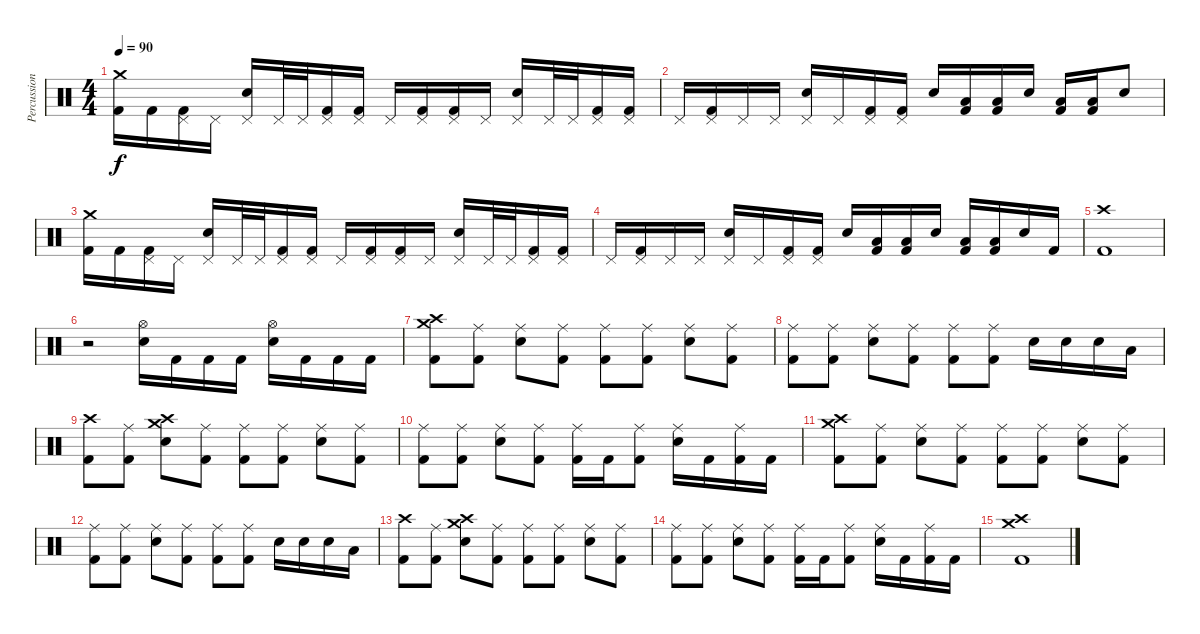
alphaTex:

\track ("Percussion" "Percussion") {instrument percussion}
\staff {score}
\articulation defaults
\ts (4 4)
\tempo 90
\clef neutral
\ks c
("Crash medium (hit)" "Kick (hit) 2").16{dy f} "Kick (hit) 2".16 ("Pedal Hi-Hat (hit)" "Kick (hit) 2").16 "Pedal Hi-Hat (hit)".16 ("Pedal Hi-Hat (hit)" "Electric Snare (hit)").16 "Pedal Hi-Hat (hit)".32 "Pedal Hi-Hat (hit)".32 ("Pedal Hi-Hat (hit)" "Kick (hit) 2").16 ("Pedal Hi-Hat (hit)" "Kick (hit) 2").16 "Pedal Hi-Hat (hit)".16 ("Pedal Hi-Hat (hit)" "Kick (hit) 2").16 ("Pedal Hi-Hat (hit)" "Kick (hit) 2").16 "Pedal Hi-Hat (hit)".16 ("Pedal Hi-Hat (hit)" "Electric Snare (hit)").16 "Pedal Hi-Hat (hit)".32 "Pedal Hi-Hat (hit)".32 ("Pedal Hi-Hat (hit)" "Kick (hit) 2").16 ("Pedal Hi-Hat (hit)" "Kick (hit) 2").16 |
"Pedal Hi-Hat (hit)".16 ("Pedal Hi-Hat (hit)" "Kick (hit) 2").16 "Pedal Hi-Hat (hit)".16 "Pedal Hi-Hat (hit)".16 ("Pedal Hi-Hat (hit)" "Electric Snare (hit)").16 "Pedal Hi-Hat (hit)".16 ("Pedal Hi-Hat (hit)" "Kick (hit) 2").16 ("Pedal Hi-Hat (hit)" "Kick (hit) 2").16 "Electric Snare (hit)".16 ("Low Tom (hit)" "Kick (hit) 2").16 ("Low Tom (hit)" "Kick (hit) 2").16 "Electric Snare (hit)".16 ("Low Tom (hit)" "Kick (hit) 2").16 ("Low Tom (hit)" "Kick (hit) 2").16 "Electric Snare (hit)".8 |
("Crash medium (hit)" "Kick (hit) 2").16 "Kick (hit) 2".16 ("Pedal Hi-Hat (hit)" "Kick (hit) 2").16 "Pedal Hi-Hat (hit)".16 ("Pedal Hi-Hat (hit)" "Electric Snare (hit)").16 "Pedal Hi-Hat (hit)".32 "Pedal Hi-Hat (hit)".32 ("Pedal Hi-Hat (hit)" "Kick (hit) 2").16 ("Pedal Hi-Hat (hit)" "Kick (hit) 2").16 "Pedal Hi-Hat (hit)".16 ("Pedal Hi-Hat (hit)" "Kick (hit) 2").16 ("Pedal Hi-Hat (hit)" "Kick (hit) 2").16 "Pedal Hi-Hat (hit)".16 ("Pedal Hi-Hat (hit)" "Electric Snare (hit)").16 "Pedal Hi-Hat (hit)".32 "Pedal Hi-Hat (hit)".32 ("Pedal Hi-Hat (hit)" "Kick (hit) 2").16 ("Pedal Hi-Hat (hit)" "Kick (hit) 2").16 |
"Pedal Hi-Hat (hit)".16 ("Pedal Hi-Hat (hit)" "Kick (hit) 2").16 "Pedal Hi-Hat (hit)".16 "Pedal Hi-Hat (hit)".16 ("Pedal Hi-Hat (hit)" "Electric Snare (hit)").16 "Pedal Hi-Hat (hit)".16 ("Pedal Hi-Hat (hit)" "Kick (hit) 2").16 ("Pedal Hi-Hat (hit)" "Kick (hit) 2").16 "Electric Snare (hit)".16 ("Low Tom (hit)" "Kick (hit) 2").16 ("Low Tom (hit)" "Kick (hit) 2").16 "Electric Snare (hit)".16 ("Low Tom (hit)" "Kick (hit) 2").16 ("Low Tom (hit)" "Kick (hit) 2").16 "Electric Snare (hit)".16 "Kick (hit) 2".16 |
("Crash high (hit)" "Kick (hit) 2").1 |
r.2 ("Hi-Hat (open)" "Electric Snare (hit)").16 "Kick (hit) 2".16 "Kick (hit) 2".16 "Kick (hit) 2".16 ("Hi-Hat (open)" "Electric Snare (hit)").16 "Kick (hit) 2".16 "Kick (hit) 2".16 "Kick (hit) 2".16 |
("Crash medium (hit)" "Crash high (hit)" "Kick (hit) 2").8 ("Ride (middle)" "Kick (hit) 2").8 ("Ride (middle)" "Electric Snare (hit)").8 ("Ride (middle)" "Kick (hit) 2").8 ("Ride (middle)" "Kick (hit) 2").8 ("Ride (middle)" "Kick (hit) 2").8 ("Ride (middle)" "Electric Snare (hit)").8 ("Ride (middle)" "Kick (hit) 2").8 |
("Ride (middle)" "Kick (hit) 2").8 ("Ride (middle)" "Kick (hit) 2").8 ("Ride (middle)" "Electric Snare (hit)").8 ("Ride (middle)" "Kick (hit) 2").8 ("Ride (middle)" "Kick (hit) 2").8 ("Ride (middle)" "Kick (hit) 2").8 "Electric Snare (hit)".16 "Electric Snare (hit)".16 "Electric Snare (hit)".16 "Low Tom (hit)".16 |
("Crash high (hit)" "Kick (hit) 2").8 ("Ride (middle)" "Kick (hit) 2").8 ("Crash medium (hit)" "Crash high (hit)" "Electric Snare (hit)").8 ("Ride (middle)" "Kick (hit) 2").8 ("Ride (middle)" "Kick (hit) 2").8 ("Ride (middle)" "Kick (hit) 2").8 ("Ride (middle)" "Electric Snare (hit)").8 ("Ride (middle)" "Kick (hit) 2").8 |
("Ride (middle)" "Kick (hit) 2").8 ("Ride (middle)" "Kick (hit) 2").8 ("Ride (middle)" "Electric Snare (hit)").8 ("Ride (middle)" "Kick (hit) 2").8 ("Ride (middle)" "Kick (hit) 2").16 "Kick (hit) 2".16 ("Ride (middle)" "Kick (hit) 2").8 ("Ride (middle)" "Electric Snare (hit)").16 "Kick (hit) 2".16 ("Ride (middle)" "Kick (hit) 2").16 "Kick (hit) 2".16 |
("Crash medium (hit)" "Crash high (hit)" "Kick (hit) 2").8 ("Ride (middle)" "Kick (hit) 2").8 ("Ride (middle)" "Electric Snare (hit)").8 ("Ride (middle)" "Kick (hit) 2").8 ("Ride (middle)" "Kick (hit) 2").8 ("Ride (middle)" "Kick (hit) 2").8 ("Ride (middle)" "Electric Snare (hit)").8 ("Ride (middle)" "Kick (hit) 2").8 |
("Ride (middle)" "Kick (hit) 2").8 ("Ride (middle)" "Kick (hit) 2").8 ("Ride (middle)" "Electric Snare (hit)").8 ("Ride (middle)" "Kick (hit) 2").8 ("Ride (middle)" "Kick (hit) 2").8 ("Ride (middle)" "Kick (hit) 2").8 "Electric Snare (hit)".16 "Electric Snare (hit)".16 "Electric Snare (hit)".16 "Low Tom (hit)".16 |
("Crash high (hit)" "Kick (hit) 2").8 ("Ride (middle)" "Kick (hit) 2").8 ("Crash medium (hit)" "Crash high (hit)" "Electric Snare (hit)").8 ("Ride (middle)" "Kick (hit) 2").8 ("Ride (middle)" "Kick (hit) 2").8 ("Ride (middle)" "Kick (hit) 2").8 ("Ride (middle)" "Electric Snare (hit)").8 ("Ride (middle)" "Kick (hit) 2").8 |
("Ride (middle)" "Kick (hit) 2").8 ("Ride (middle)" "Kick (hit) 2").8 ("Ride (middle)" "Electric Snare (hit)").8 ("Ride (middle)" "Kick (hit) 2").8 ("Ride (middle)" "Kick (hit) 2").16 "Kick (hit) 2".16 ("Ride (middle)" "Kick (hit) 2").8 ("Ride (middle)" "Electric Snare (hit)").16 "Kick (hit) 2".16 ("Ride (middle)" "Kick (hit) 2").16 "Kick (hit) 2".16 |
("Crash medium (hit)" "Crash high (hit)" "Kick (hit) 2").1
